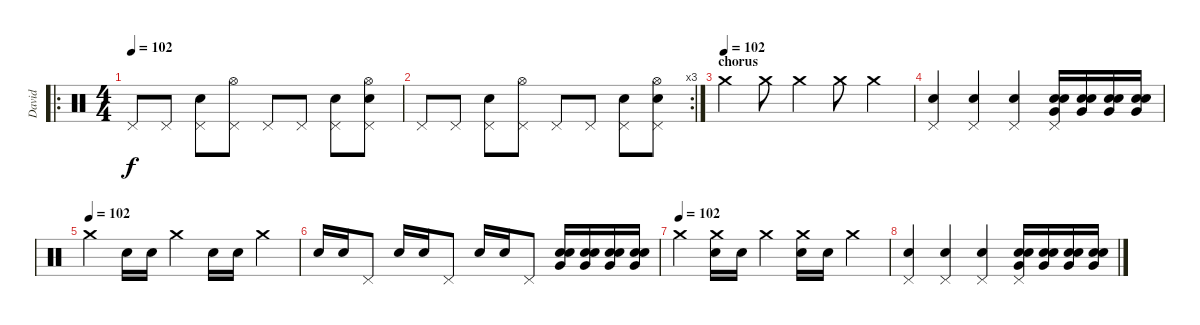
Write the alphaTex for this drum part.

\track ("David" "David") {instrument percussion}
\staff {score}
\articulation defaults
\ro
\ts (4 4)
\tempo 102
\clef neutral
\ks c "Pedal Hi-Hat (hit)".8{dy f} "Pedal Hi-Hat (hit)".8
("Pedal Hi-Hat (hit)" "Snare (hit) 2").8 ("Pedal Hi-Hat (hit)" "Hi-Hat (open)").8 "Pedal Hi-Hat (hit)".8 "Pedal Hi-Hat (hit)".8 ("Pedal Hi-Hat (hit)" "Snare (hit) 2").8 ("Pedal Hi-Hat (hit)" "Hi-Hat (open)" "Snare (hit) 2").8 |
\rc 3 "Pedal Hi-Hat (hit)".8 "Pedal Hi-Hat (hit)".8
("Pedal Hi-Hat (hit)" "Snare (hit) 2").8 ("Pedal Hi-Hat (hit)" "Hi-Hat (open)").8 "Pedal Hi-Hat (hit)".8 "Pedal Hi-Hat (hit)".8 ("Pedal Hi-Hat (hit)" "Snare (hit) 2").8 ("Pedal Hi-Hat (hit)" "Hi-Hat (open)" "Snare (hit) 2").8 |
\section ("" "chorus")
\tempo (102)
"Crash medium (hit)".4 "Crash medium (hit)".8 "Crash medium (hit)".4 "Crash medium (hit)".8 "Crash medium (hit)".4 |
("Pedal Hi-Hat (hit)" "Snare (hit) 2").4 ("Pedal Hi-Hat (hit)" "Snare (hit) 2").4 ("Pedal Hi-Hat (hit)" "Snare (hit) 2").4 ("Pedal Hi-Hat (hit)" "Electric Snare (hit)" "Very Low Tom (hit)" "Snare (hit) 2").16 ("Electric Snare (hit)" "Very Low Tom (hit)" "Snare (hit) 2").16 ("Electric Snare (hit)" "Very Low Tom (hit)" "Snare (hit) 2").16 ("Electric Snare (hit)" "Very Low Tom (hit)" "Snare (hit) 2").16 |
\tempo (102)
"Crash medium (hit)".4 "Snare (hit) 2".16 "Snare (hit) 2".16 "Crash medium (hit)".4 "Snare (hit) 2".16 "Snare (hit) 2".16 "Crash medium (hit)".4 |
"Snare (hit) 2".16 "Snare (hit) 2".16 "Pedal Hi-Hat (hit)".8 "Snare (hit) 2".16 "Snare (hit) 2".16 "Pedal Hi-Hat (hit)".8 "Snare (hit) 2".16 "Snare (hit) 2".16 "Pedal Hi-Hat (hit)".8 ("Electric Snare (hit)" "Very Low Tom (hit)" "Snare (hit) 2").16 ("Electric Snare (hit)" "Very Low Tom (hit)" "Snare (hit) 2").16 ("Electric Snare (hit)" "Very Low Tom (hit)" "Snare (hit) 2").16 ("Electric Snare (hit)" "Very Low Tom (hit)" "Snare (hit) 2").16 |
\tempo (102)
"Crash medium (hit)".4 ("Crash medium (hit)" "Snare (hit) 2").16 "Snare (hit) 2".16 "Crash medium (hit)".4 ("Crash medium (hit)" "Snare (hit) 2").16 "Snare (hit) 2".16 "Crash medium (hit)".4 |
("Pedal Hi-Hat (hit)" "Snare (hit) 2").4 ("Pedal Hi-Hat (hit)" "Snare (hit) 2").4 ("Pedal Hi-Hat (hit)" "Snare (hit) 2").4 ("Pedal Hi-Hat (hit)" "Electric Snare (hit)" "Very Low Tom (hit)" "Snare (hit) 2").16 ("Electric Snare (hit)" "Very Low Tom (hit)" "Snare (hit) 2").16 ("Electric Snare (hit)" "Very Low Tom (hit)" "Snare (hit) 2").16 ("Electric Snare (hit)" "Very Low Tom (hit)" "Snare (hit) 2").16
